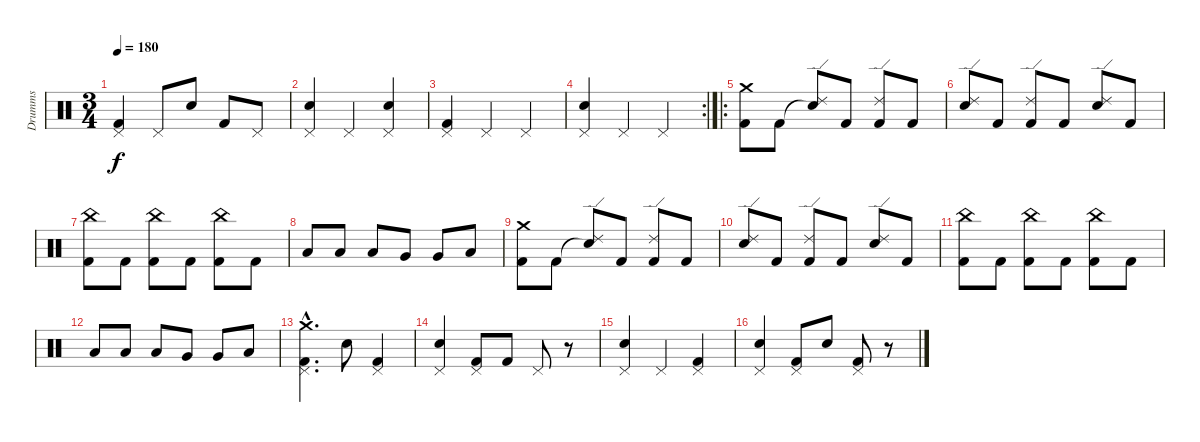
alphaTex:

\track ("Drumms" "Drumms") {instrument percussion}
\staff {score}
\articulation defaults
\ts (3 4)
\tempo 180
\clef neutral
\ks c
("Pedal Hi-Hat (hit)" "Kick (hit) 2").4{dy f} "Pedal Hi-Hat (hit)".8 "Snare (hit) 2".8 "Kick (hit) 2".8 "Pedal Hi-Hat (hit)".8 |
("Pedal Hi-Hat (hit)" "Snare (hit) 2").4 "Pedal Hi-Hat (hit)".4 ("Pedal Hi-Hat (hit)" "Snare (hit) 2").4 |
("Pedal Hi-Hat (hit)" "Kick (hit) 2").4 "Pedal Hi-Hat (hit)".4 "Pedal Hi-Hat (hit)".4 |
\rc 2
("Pedal Hi-Hat (hit)" "Snare (hit) 2").4 "Pedal Hi-Hat (hit)".4 "Pedal Hi-Hat (hit)".4 |
\ro
("Kick (hit) 2" "Crash medium (hit)").8 "Kick (hit) 2".8 ("Snare (hit) 2"{t} "Ride (edge) 2").8 "Kick (hit) 2".8 ("Kick (hit) 2" "Ride (edge) 2").8 "Kick (hit) 2".8 |
("Snare (hit) 2" "Ride (edge) 2").8 "Kick (hit) 2".8 ("Kick (hit) 2" "Ride (edge) 2").8 "Kick (hit) 2".8 ("Snare (hit) 2" "Ride (edge) 2").8 "Kick (hit) 2".8 |
("Kick (hit) 2" "China (hit)").8 "Kick (hit) 2".8 ("Kick (hit) 2" "China (hit)").8 "Kick (hit) 2".8 ("Kick (hit) 2" "China (hit)").8 "Kick (hit) 2".8 |
"Low Tom (hit)".8 "Low Tom (hit)".8 "Low Tom (hit)".8 "Very Low Tom (hit)".8 "Very Low Tom (hit)".8 "Low Floor Tom (hit)".8 |
("Kick (hit) 2" "Crash medium (hit)").8 "Kick (hit) 2".8 ("Snare (hit) 2"{t} "Ride (edge) 2").8 "Kick (hit) 2".8 ("Kick (hit) 2" "Ride (edge) 2").8 "Kick (hit) 2".8 |
("Snare (hit) 2" "Ride (edge) 2").8 "Kick (hit) 2".8 ("Kick (hit) 2" "Ride (edge) 2").8 "Kick (hit) 2".8 ("Snare (hit) 2" "Ride (edge) 2").8 "Kick (hit) 2".8 |
("Kick (hit) 2" "China (hit)").8 "Kick (hit) 2".8 ("Kick (hit) 2" "China (hit)").8 "Kick (hit) 2".8 ("Kick (hit) 2" "China (hit)").8 "Kick (hit) 2".8 |
"Low Tom (hit)".8 "Low Tom (hit)".8 "Low Tom (hit)".8 "Very Low Tom (hit)".8 "Very Low Tom (hit)".8 "Low Floor Tom (hit)".8 |
("Kick (hit) 2"{hac} "Crash medium (hit)"{hac} "Pedal Hi-Hat (hit)"{hac}).4{d} "Snare (hit) 2".8 ("Kick (hit) 2" "Pedal Hi-Hat (hit)").4 |
("Snare (hit) 2" "Pedal Hi-Hat (hit)").4 ("Kick (hit) 2" "Pedal Hi-Hat (hit)").8 "Kick (hit) 2".8 "Pedal Hi-Hat (hit)".8 r.8 |
("Snare (hit) 2" "Pedal Hi-Hat (hit)").4 "Pedal Hi-Hat (hit)".4 ("Kick (hit) 2" "Pedal Hi-Hat (hit)").4 |
("Snare (hit) 2" "Pedal Hi-Hat (hit)").4 ("Kick (hit) 2" "Pedal Hi-Hat (hit)").8 "Snare (hit) 2".8 ("Kick (hit) 2" "Pedal Hi-Hat (hit)").8 r.8
